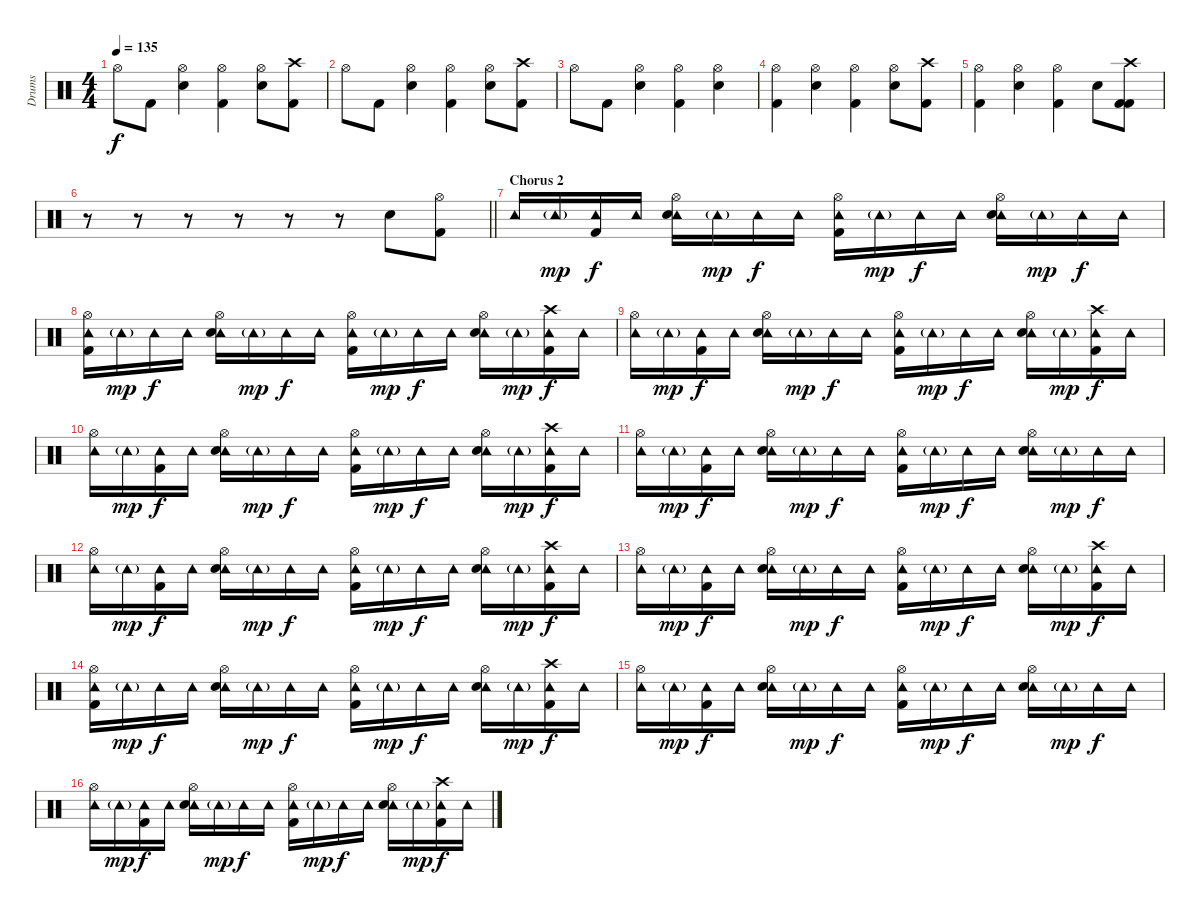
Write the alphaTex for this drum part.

\track ("Drums" "Drums") {instrument percussion}
\staff {score}
\articulation defaults
\ts (4 4)
\tempo 135
\clef neutral
\ks c "Hi-Hat (open)".8{dy f} "Kick (hit) 2".8
("Hi-Hat (open)" "Electric Snare (hit)").4 ("Hi-Hat (open)" "Kick (hit) 2").4 ("Hi-Hat (open)" "Electric Snare (hit)").8 ("Kick (hit) 2" "Crash high (hit)").8 |
"Hi-Hat (open)".8 "Kick (hit) 2".8 ("Hi-Hat (open)" "Electric Snare (hit)").4 ("Hi-Hat (open)" "Kick (hit) 2").4 ("Hi-Hat (open)" "Electric Snare (hit)").8 ("Kick (hit) 2" "Crash high (hit)").8 |
"Hi-Hat (open)".8 "Kick (hit) 2".8 ("Hi-Hat (open)" "Electric Snare (hit)").4 ("Hi-Hat (open)" "Kick (hit) 2").4 ("Hi-Hat (open)" "Electric Snare (hit)").4 |
("Hi-Hat (open)" "Kick (hit) 2").4 ("Hi-Hat (open)" "Electric Snare (hit)").4 ("Hi-Hat (open)" "Kick (hit) 2").4 ("Hi-Hat (open)" "Electric Snare (hit)").8 ("Kick (hit) 2" "Crash high (hit)").8 |
("Hi-Hat (open)" "Kick (hit) 2").4 ("Hi-Hat (open)" "Electric Snare (hit)").4 ("Hi-Hat (open)" "Kick (hit) 2").4 "Electric Snare (hit)".8 ("Crash high (hit)" "Kick (hit) 2" "Kick (hit) 2").8 |
\barLineRight lightlight
r.8 r.8 r.8 r.8 r.8 r.8 "Electric Snare (hit)".8 ("Hi-Hat (open)" "Kick (hit) 2").8 |
\section ("" "Chorus 2")
"Tambourine (hit)".16 "Tambourine (hit)"{g}.16{dy mp} ("Tambourine (hit)" "Kick (hit) 2").16{dy f} "Tambourine (hit)".16 ("Hi-Hat (open)" "Tambourine (hit)" "Electric Snare (hit)").16 "Tambourine (hit)"{g}.16{dy mp} "Tambourine (hit)".16{dy f} "Tambourine (hit)".16 ("Hi-Hat (open)" "Tambourine (hit)" "Kick (hit) 2").16 "Tambourine (hit)"{g}.16{dy mp} "Tambourine (hit)".16{dy f} "Tambourine (hit)".16 ("Hi-Hat (open)" "Tambourine (hit)" "Electric Snare (hit)").16 "Tambourine (hit)"{g}.16{dy mp} "Tambourine (hit)".16{dy f} "Tambourine (hit)".16 |
("Hi-Hat (open)" "Tambourine (hit)" "Kick (hit) 2").16 "Tambourine (hit)"{g}.16{dy mp} "Tambourine (hit)".16{dy f} "Tambourine (hit)".16 ("Hi-Hat (open)" "Tambourine (hit)" "Electric Snare (hit)").16 "Tambourine (hit)"{g}.16{dy mp} "Tambourine (hit)".16{dy f} "Tambourine (hit)".16 ("Hi-Hat (open)" "Tambourine (hit)" "Kick (hit) 2").16 "Tambourine (hit)"{g}.16{dy mp} "Tambourine (hit)".16{dy f} "Tambourine (hit)".16 ("Hi-Hat (open)" "Tambourine (hit)" "Electric Snare (hit)").16 "Tambourine (hit)"{g}.16{dy mp} ("Tambourine (hit)" "Crash high (hit)" "Kick (hit) 2").16{dy f} "Tambourine (hit)".16 |
("Hi-Hat (open)" "Tambourine (hit)").16 "Tambourine (hit)"{g}.16{dy mp} ("Tambourine (hit)" "Kick (hit) 2").16{dy f} "Tambourine (hit)".16 ("Hi-Hat (open)" "Tambourine (hit)" "Electric Snare (hit)").16 "Tambourine (hit)"{g}.16{dy mp} "Tambourine (hit)".16{dy f} "Tambourine (hit)".16 ("Hi-Hat (open)" "Tambourine (hit)" "Kick (hit) 2").16 "Tambourine (hit)"{g}.16{dy mp} "Tambourine (hit)".16{dy f} "Tambourine (hit)".16 ("Hi-Hat (open)" "Tambourine (hit)" "Electric Snare (hit)").16 "Tambourine (hit)"{g}.16{dy mp} ("Tambourine (hit)" "Crash high (hit)" "Kick (hit) 2").16{dy f} "Tambourine (hit)".16 |
("Hi-Hat (open)" "Tambourine (hit)").16 "Tambourine (hit)"{g}.16{dy mp} ("Tambourine (hit)" "Kick (hit) 2").16{dy f} "Tambourine (hit)".16 ("Hi-Hat (open)" "Tambourine (hit)" "Electric Snare (hit)").16 "Tambourine (hit)"{g}.16{dy mp} "Tambourine (hit)".16{dy f} "Tambourine (hit)".16 ("Hi-Hat (open)" "Tambourine (hit)" "Kick (hit) 2").16 "Tambourine (hit)"{g}.16{dy mp} "Tambourine (hit)".16{dy f} "Tambourine (hit)".16 ("Hi-Hat (open)" "Tambourine (hit)" "Electric Snare (hit)").16 "Tambourine (hit)"{g}.16{dy mp} ("Tambourine (hit)" "Crash high (hit)" "Kick (hit) 2").16{dy f} "Tambourine (hit)".16 |
("Hi-Hat (open)" "Tambourine (hit)").16 "Tambourine (hit)"{g}.16{dy mp} ("Tambourine (hit)" "Kick (hit) 2").16{dy f} "Tambourine (hit)".16 ("Hi-Hat (open)" "Tambourine (hit)" "Electric Snare (hit)").16 "Tambourine (hit)"{g}.16{dy mp} "Tambourine (hit)".16{dy f} "Tambourine (hit)".16 ("Hi-Hat (open)" "Tambourine (hit)" "Kick (hit) 2").16 "Tambourine (hit)"{g}.16{dy mp} "Tambourine (hit)".16{dy f} "Tambourine (hit)".16 ("Hi-Hat (open)" "Tambourine (hit)" "Electric Snare (hit)").16 "Tambourine (hit)"{g}.16{dy mp} "Tambourine (hit)".16{dy f} "Tambourine (hit)".16 |
("Hi-Hat (open)" "Tambourine (hit)").16 "Tambourine (hit)"{g}.16{dy mp} ("Tambourine (hit)" "Kick (hit) 2").16{dy f} "Tambourine (hit)".16 ("Hi-Hat (open)" "Tambourine (hit)" "Electric Snare (hit)").16 "Tambourine (hit)"{g}.16{dy mp} "Tambourine (hit)".16{dy f} "Tambourine (hit)".16 ("Hi-Hat (open)" "Tambourine (hit)" "Kick (hit) 2").16 "Tambourine (hit)"{g}.16{dy mp} "Tambourine (hit)".16{dy f} "Tambourine (hit)".16 ("Hi-Hat (open)" "Tambourine (hit)" "Electric Snare (hit)").16 "Tambourine (hit)"{g}.16{dy mp} ("Tambourine (hit)" "Crash high (hit)" "Kick (hit) 2").16{dy f} "Tambourine (hit)".16 |
("Hi-Hat (open)" "Tambourine (hit)").16 "Tambourine (hit)"{g}.16{dy mp} ("Tambourine (hit)" "Kick (hit) 2").16{dy f} "Tambourine (hit)".16 ("Hi-Hat (open)" "Tambourine (hit)" "Electric Snare (hit)").16 "Tambourine (hit)"{g}.16{dy mp} "Tambourine (hit)".16{dy f} "Tambourine (hit)".16 ("Hi-Hat (open)" "Tambourine (hit)" "Kick (hit) 2").16 "Tambourine (hit)"{g}.16{dy mp} "Tambourine (hit)".16{dy f} "Tambourine (hit)".16 ("Hi-Hat (open)" "Tambourine (hit)" "Electric Snare (hit)").16 "Tambourine (hit)"{g}.16{dy mp} ("Tambourine (hit)" "Crash high (hit)" "Kick (hit) 2").16{dy f} "Tambourine (hit)".16 |
("Hi-Hat (open)" "Tambourine (hit)" "Kick (hit) 2").16 "Tambourine (hit)"{g}.16{dy mp} "Tambourine (hit)".16{dy f} "Tambourine (hit)".16 ("Hi-Hat (open)" "Tambourine (hit)" "Electric Snare (hit)").16 "Tambourine (hit)"{g}.16{dy mp} "Tambourine (hit)".16{dy f} "Tambourine (hit)".16 ("Hi-Hat (open)" "Tambourine (hit)" "Kick (hit) 2").16 "Tambourine (hit)"{g}.16{dy mp} "Tambourine (hit)".16{dy f} "Tambourine (hit)".16 ("Hi-Hat (open)" "Tambourine (hit)" "Electric Snare (hit)").16 "Tambourine (hit)"{g}.16{dy mp} ("Tambourine (hit)" "Crash high (hit)" "Kick (hit) 2").16{dy f} "Tambourine (hit)".16 |
("Hi-Hat (open)" "Tambourine (hit)").16 "Tambourine (hit)"{g}.16{dy mp} ("Tambourine (hit)" "Kick (hit) 2").16{dy f} "Tambourine (hit)".16 ("Hi-Hat (open)" "Tambourine (hit)" "Electric Snare (hit)").16 "Tambourine (hit)"{g}.16{dy mp} "Tambourine (hit)".16{dy f} "Tambourine (hit)".16 ("Hi-Hat (open)" "Tambourine (hit)" "Kick (hit) 2").16 "Tambourine (hit)"{g}.16{dy mp} "Tambourine (hit)".16{dy f} "Tambourine (hit)".16 ("Hi-Hat (open)" "Tambourine (hit)" "Electric Snare (hit)").16 "Tambourine (hit)"{g}.16{dy mp} "Tambourine (hit)".16{dy f} "Tambourine (hit)".16 |
("Hi-Hat (open)" "Tambourine (hit)").16 "Tambourine (hit)"{g}.16{dy mp} ("Tambourine (hit)" "Kick (hit) 2").16{dy f} "Tambourine (hit)".16 ("Hi-Hat (open)" "Tambourine (hit)" "Electric Snare (hit)").16 "Tambourine (hit)"{g}.16{dy mp} "Tambourine (hit)".16{dy f} "Tambourine (hit)".16 ("Hi-Hat (open)" "Tambourine (hit)" "Kick (hit) 2").16 "Tambourine (hit)"{g}.16{dy mp} "Tambourine (hit)".16{dy f} "Tambourine (hit)".16 ("Hi-Hat (open)" "Tambourine (hit)" "Electric Snare (hit)").16 "Tambourine (hit)"{g}.16{dy mp} ("Tambourine (hit)" "Crash high (hit)" "Kick (hit) 2").16{dy f} "Tambourine (hit)".16
